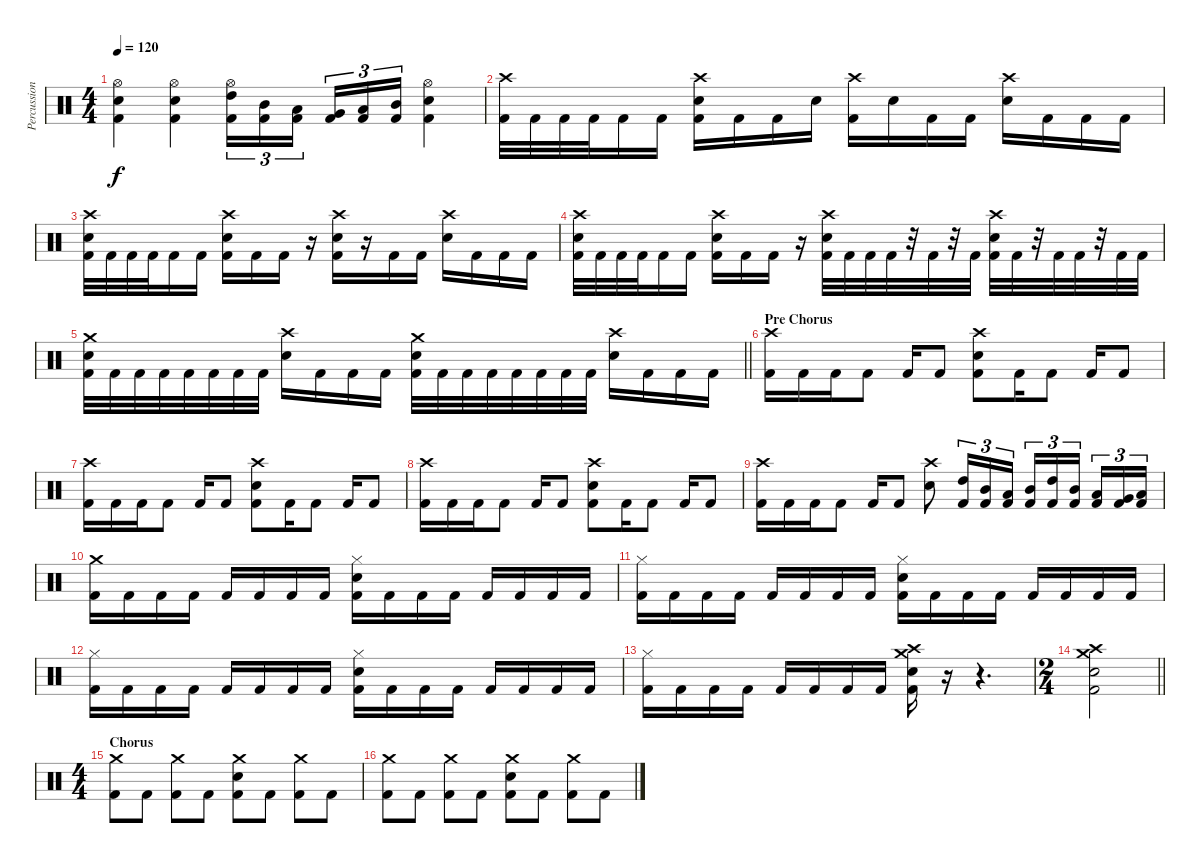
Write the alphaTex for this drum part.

\track ("Percussion" "Percussion") {instrument percussion}
\staff {score}
\articulation defaults
\ts (4 4)
\tempo 120
\clef neutral
\ks c
("Hi-Hat (open)" "Snare (hit) 2" "Kick (hit) 2").4{dy f} ("Hi-Hat (open)" "Snare (hit) 2" "Kick (hit) 2").4 ("Hi-Hat (open)" "High Tom (hit)" "Kick (hit) 2").16{tu (3 2)} ("Mid Tom (hit)" "Kick (hit) 2").16{tu (3 2)} ("Low Tom (hit)" "Kick (hit) 2").16{tu (3 2) beam splitsecondary} ("Very Low Tom (hit)" "Kick (hit) 2").16{tu (3 2)} ("Low Tom (hit)" "Kick (hit) 2").16{tu (3 2)} ("Mid Tom (hit)" "Kick (hit) 2").16{tu (3 2)} ("Hi-Hat (open)" "Snare (hit) 2" "Kick (hit) 2").4 |
("Crash high (hit)" "Kick (hit) 2").32 "Kick (hit) 2".32 "Kick (hit) 2".32 "Kick (hit) 2".32 "Kick (hit) 2".16 "Kick (hit) 2".16 ("Crash high (hit)" "Snare (hit) 2" "Kick (hit) 2").16 "Kick (hit) 2".16 "Kick (hit) 2".16 "Snare (hit) 2".16 ("Crash high (hit)" "Kick (hit) 2").16 "Snare (hit) 2".16 "Kick (hit) 2".16 "Kick (hit) 2".16 ("Crash high (hit)" "Snare (hit) 2").16 "Kick (hit) 2".16 "Kick (hit) 2".16 "Kick (hit) 2".16 |
("Crash high (hit)" "Snare (hit) 2" "Kick (hit) 2").32 "Kick (hit) 2".32 "Kick (hit) 2".32 "Kick (hit) 2".32 "Kick (hit) 2".16 "Kick (hit) 2".16 ("Crash high (hit)" "Snare (hit) 2" "Kick (hit) 2").16 "Kick (hit) 2".16 "Kick (hit) 2".16 r.16 ("Crash high (hit)" "Snare (hit) 2" "Kick (hit) 2").16 r.16 "Kick (hit) 2".16 "Kick (hit) 2".16 ("Crash high (hit)" "Snare (hit) 2").16 "Kick (hit) 2".16 "Kick (hit) 2".16 "Kick (hit) 2".16 |
("Crash high (hit)" "Snare (hit) 2" "Kick (hit) 2").32 "Kick (hit) 2".32 "Kick (hit) 2".32 "Kick (hit) 2".32 "Kick (hit) 2".16 "Kick (hit) 2".16 ("Crash high (hit)" "Snare (hit) 2" "Kick (hit) 2").16 "Kick (hit) 2".16 "Kick (hit) 2".16 r.16 ("Crash high (hit)" "Snare (hit) 2" "Kick (hit) 2").32 "Kick (hit) 2".32 "Kick (hit) 2".32 "Kick (hit) 2".32 r.32 "Kick (hit) 2".32 r.32 "Kick (hit) 2".32 ("Crash high (hit)" "Snare (hit) 2" "Kick (hit) 2").32 "Kick (hit) 2".32 r.32 "Kick (hit) 2".32 "Kick (hit) 2".32 r.32 "Kick (hit) 2".32 "Kick (hit) 2".32 |
\barLineRight lightlight
("Crash medium (hit)" "Snare (hit) 2" "Kick (hit) 2").32 "Kick (hit) 2".32 "Kick (hit) 2".32 "Kick (hit) 2".32 "Kick (hit) 2".32 "Kick (hit) 2".32 "Kick (hit) 2".32 "Kick (hit) 2".32 ("Crash high (hit)" "Snare (hit) 2").16 "Kick (hit) 2".16 "Kick (hit) 2".16 "Kick (hit) 2".16 ("Crash medium (hit)" "Snare (hit) 2" "Kick (hit) 2").32 "Kick (hit) 2".32 "Kick (hit) 2".32 "Kick (hit) 2".32 "Kick (hit) 2".32 "Kick (hit) 2".32 "Kick (hit) 2".32 "Kick (hit) 2".32 ("Crash high (hit)" "Snare (hit) 2").16 "Kick (hit) 2".16 "Kick (hit) 2".16 "Kick (hit) 2".16 |
\section ("" "Pre Chorus")
("Crash high (hit)" "Kick (hit) 2").16 "Kick (hit) 2".16 "Kick (hit) 2".16 "Kick (hit) 2".8 "Kick (hit) 2".16 "Kick (hit) 2".8 ("Crash high (hit)" "Snare (hit) 2" "Kick (hit) 2").8 "Kick (hit) 2".16 "Kick (hit) 2".8 "Kick (hit) 2".16 "Kick (hit) 2".8 |
("Crash high (hit)" "Kick (hit) 2").16 "Kick (hit) 2".16 "Kick (hit) 2".16 "Kick (hit) 2".8 "Kick (hit) 2".16 "Kick (hit) 2".8 ("Crash high (hit)" "Snare (hit) 2" "Kick (hit) 2").8 "Kick (hit) 2".16 "Kick (hit) 2".8 "Kick (hit) 2".16 "Kick (hit) 2".8 |
("Crash high (hit)" "Kick (hit) 2").16 "Kick (hit) 2".16 "Kick (hit) 2".16 "Kick (hit) 2".8 "Kick (hit) 2".16 "Kick (hit) 2".8 ("Crash high (hit)" "Snare (hit) 2" "Kick (hit) 2").8 "Kick (hit) 2".16 "Kick (hit) 2".8 "Kick (hit) 2".16 "Kick (hit) 2".8 |
("Crash high (hit)" "Kick (hit) 2").16 "Kick (hit) 2".16 "Kick (hit) 2".16 "Kick (hit) 2".8 "Kick (hit) 2".16 "Kick (hit) 2".8 ("Crash high (hit)" "Snare (hit) 2").8 ("High Tom (hit)" "Kick (hit) 2").16{tu (3 2)} ("Mid Tom (hit)" "Kick (hit) 2").16{tu (3 2)} ("Low Tom (hit)" "Kick (hit) 2").16{tu (3 2)} ("Mid Tom (hit)" "Kick (hit) 2").16{tu (3 2)} ("High Tom (hit)" "Kick (hit) 2").16{tu (3 2)} ("Mid Tom (hit)" "Kick (hit) 2").16{tu (3 2) beam splitsecondary} ("Low Tom (hit)" "Kick (hit) 2").16{tu (3 2)} ("Very Low Tom (hit)" "Kick (hit) 2").16{tu (3 2)} ("Low Tom (hit)" "Kick (hit) 2").16{tu (3 2)} |
("Crash medium (hit)" "Kick (hit) 2").16 "Kick (hit) 2".16 "Kick (hit) 2".16 "Kick (hit) 2".16 "Kick (hit) 2".16 "Kick (hit) 2".16 "Kick (hit) 2".16 "Kick (hit) 2".16 ("Hi-Hat (closed)" "Snare (hit) 2" "Kick (hit) 2").16 "Kick (hit) 2".16 "Kick (hit) 2".16 "Kick (hit) 2".16 "Kick (hit) 2".16 "Kick (hit) 2".16 "Kick (hit) 2".16 "Kick (hit) 2".16 |
("Hi-Hat (closed)" "Kick (hit) 2").16 "Kick (hit) 2".16 "Kick (hit) 2".16 "Kick (hit) 2".16 "Kick (hit) 2".16 "Kick (hit) 2".16 "Kick (hit) 2".16 "Kick (hit) 2".16 ("Hi-Hat (closed)" "Snare (hit) 2" "Kick (hit) 2").16 "Kick (hit) 2".16 "Kick (hit) 2".16 "Kick (hit) 2".16 "Kick (hit) 2".16 "Kick (hit) 2".16 "Kick (hit) 2".16 "Kick (hit) 2".16 |
("Hi-Hat (closed)" "Kick (hit) 2").16 "Kick (hit) 2".16 "Kick (hit) 2".16 "Kick (hit) 2".16 "Kick (hit) 2".16 "Kick (hit) 2".16 "Kick (hit) 2".16 "Kick (hit) 2".16 ("Hi-Hat (closed)" "Snare (hit) 2" "Kick (hit) 2").16 "Kick (hit) 2".16 "Kick (hit) 2".16 "Kick (hit) 2".16 "Kick (hit) 2".16 "Kick (hit) 2".16 "Kick (hit) 2".16 "Kick (hit) 2".16 |
("Hi-Hat (closed)" "Kick (hit) 2").16 "Kick (hit) 2".16 "Kick (hit) 2".16 "Kick (hit) 2".16 "Kick (hit) 2".16 "Kick (hit) 2".16 "Kick (hit) 2".16 "Kick (hit) 2".16 ("Crash medium (hit)" "Crash high (hit)" "Snare (hit) 2" "Kick (hit) 2").16 r.16 r.4{d} |
\ts (2 4)
\barLineRight lightlight
("Crash medium (hit)" "Crash high (hit)" "Snare (hit) 2" "Kick (hit) 2").2 |
\ts (4 4)
\section ("" "Chorus")
("Crash medium (hit)" "Kick (hit) 2").8 "Kick (hit) 2".8 ("Crash medium (hit)" "Kick (hit) 2").8 "Kick (hit) 2".8 ("Crash medium (hit)" "Snare (hit) 2" "Kick (hit) 2").8 "Kick (hit) 2".8 ("Crash medium (hit)" "Kick (hit) 2").8 "Kick (hit) 2".8 |
("Crash medium (hit)" "Kick (hit) 2").8 "Kick (hit) 2".8 ("Crash medium (hit)" "Kick (hit) 2").8 "Kick (hit) 2".8 ("Crash medium (hit)" "Snare (hit) 2" "Kick (hit) 2").8 "Kick (hit) 2".8 ("Crash medium (hit)" "Kick (hit) 2").8 "Kick (hit) 2".8
